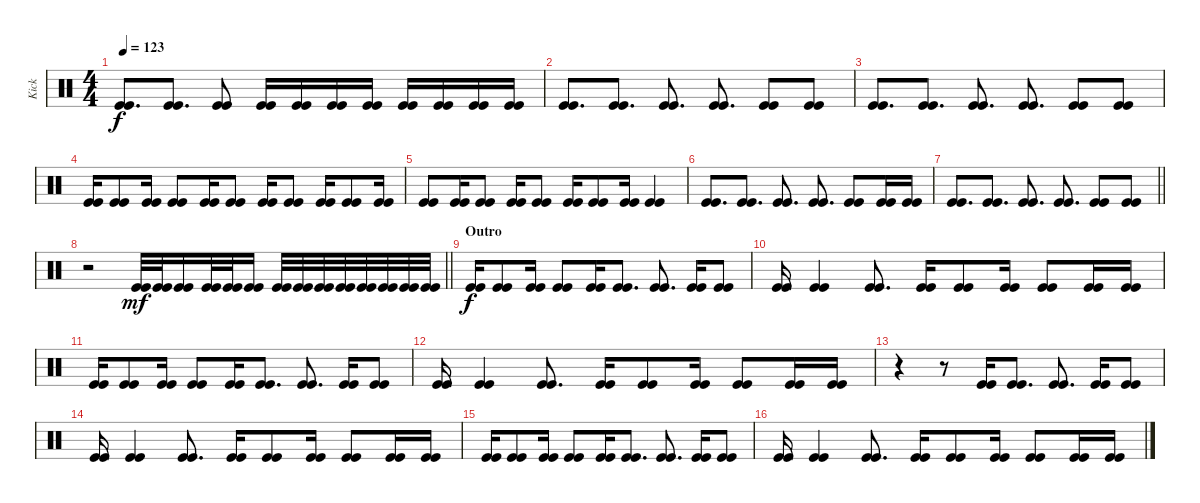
\track ("Kick" "Kick") {instrument percussion}
\staff {score}
\articulation defaults
\ts (4 4)
\tempo 123
\clef neutral
\ks c
("Kick (hit)" "Kick (hit)").8{d dy f} ("Kick (hit)" "Kick (hit)").8{d} ("Kick (hit)" "Kick (hit)").8 ("Kick (hit)" "Kick (hit)").16 ("Kick (hit)" "Kick (hit)").16 ("Kick (hit)" "Kick (hit)").16 ("Kick (hit)" "Kick (hit)").16 ("Kick (hit)" "Kick (hit)").16 ("Kick (hit)" "Kick (hit)").16 ("Kick (hit)" "Kick (hit)").16 ("Kick (hit)" "Kick (hit)").16 |
("Kick (hit)" "Kick (hit)").8{d} ("Kick (hit)" "Kick (hit)").8{d} ("Kick (hit)" "Kick (hit)").8{d} ("Kick (hit)" "Kick (hit)").8{d} ("Kick (hit)" "Kick (hit)").8 ("Kick (hit)" "Kick (hit)").8 |
("Kick (hit)" "Kick (hit)").8{d} ("Kick (hit)" "Kick (hit)").8{d} ("Kick (hit)" "Kick (hit)").8{d} ("Kick (hit)" "Kick (hit)").8{d} ("Kick (hit)" "Kick (hit)").8 ("Kick (hit)" "Kick (hit)").8 |
("Kick (hit)" "Kick (hit)").16 ("Kick (hit)" "Kick (hit)").8 ("Kick (hit)" "Kick (hit)").16 ("Kick (hit)" "Kick (hit)").8 ("Kick (hit)" "Kick (hit)").16 ("Kick (hit)" "Kick (hit)").8 ("Kick (hit)" "Kick (hit)").16 ("Kick (hit)" "Kick (hit)").8 ("Kick (hit)" "Kick (hit)").16 ("Kick (hit)" "Kick (hit)").8 ("Kick (hit)" "Kick (hit)").16 |
("Kick (hit)" "Kick (hit)").8 ("Kick (hit)" "Kick (hit)").16 ("Kick (hit)" "Kick (hit)").8 ("Kick (hit)" "Kick (hit)").16 ("Kick (hit)" "Kick (hit)").8 ("Kick (hit)" "Kick (hit)").16 ("Kick (hit)" "Kick (hit)").8 ("Kick (hit)" "Kick (hit)").16 ("Kick (hit)" "Kick (hit)").4 |
("Kick (hit)" "Kick (hit)").8{d} ("Kick (hit)" "Kick (hit)").8{d} ("Kick (hit)" "Kick (hit)").8{d} ("Kick (hit)" "Kick (hit)").8{d} ("Kick (hit)" "Kick (hit)").8 ("Kick (hit)" "Kick (hit)").16 ("Kick (hit)" "Kick (hit)").16 |
\barLineRight lightlight
("Kick (hit)" "Kick (hit)").8{d} ("Kick (hit)" "Kick (hit)").8{d} ("Kick (hit)" "Kick (hit)").8{d} ("Kick (hit)" "Kick (hit)").8{d} ("Kick (hit)" "Kick (hit)").8 ("Kick (hit)" "Kick (hit)").8 |
\barLineRight lightlight
r.2 ("Kick (hit)" "Kick (hit)").32{dy mf} ("Kick (hit)" "Kick (hit)").32 ("Kick (hit)" "Kick (hit)").16 ("Kick (hit)" "Kick (hit)").32 ("Kick (hit)" "Kick (hit)").32 ("Kick (hit)" "Kick (hit)").16 ("Kick (hit)" "Kick (hit)").32 ("Kick (hit)" "Kick (hit)").32 ("Kick (hit)" "Kick (hit)").32 ("Kick (hit)" "Kick (hit)").32 ("Kick (hit)" "Kick (hit)").32 ("Kick (hit)" "Kick (hit)").32 ("Kick (hit)" "Kick (hit)").32 ("Kick (hit)" "Kick (hit)").32 |
\section ("" "Outro")
("Kick (hit)" "Kick (hit)").16{dy f} ("Kick (hit)" "Kick (hit)").8 ("Kick (hit)" "Kick (hit)").16 ("Kick (hit)" "Kick (hit)").8 ("Kick (hit)" "Kick (hit)").16 ("Kick (hit)" "Kick (hit)").8{d} ("Kick (hit)" "Kick (hit)").8{d} ("Kick (hit)" "Kick (hit)").16 ("Kick (hit)" "Kick (hit)").8 |
("Kick (hit)" "Kick (hit)").16 ("Kick (hit)" "Kick (hit)").4 ("Kick (hit)" "Kick (hit)").8{d} ("Kick (hit)" "Kick (hit)").16 ("Kick (hit)" "Kick (hit)").8 ("Kick (hit)" "Kick (hit)").16 ("Kick (hit)" "Kick (hit)").8 ("Kick (hit)" "Kick (hit)").16 ("Kick (hit)" "Kick (hit)").16 |
("Kick (hit)" "Kick (hit)").16 ("Kick (hit)" "Kick (hit)").8 ("Kick (hit)" "Kick (hit)").16 ("Kick (hit)" "Kick (hit)").8 ("Kick (hit)" "Kick (hit)").16 ("Kick (hit)" "Kick (hit)").8{d} ("Kick (hit)" "Kick (hit)").8{d} ("Kick (hit)" "Kick (hit)").16 ("Kick (hit)" "Kick (hit)").8 |
("Kick (hit)" "Kick (hit)").16 ("Kick (hit)" "Kick (hit)").4 ("Kick (hit)" "Kick (hit)").8{d} ("Kick (hit)" "Kick (hit)").16 ("Kick (hit)" "Kick (hit)").8 ("Kick (hit)" "Kick (hit)").16 ("Kick (hit)" "Kick (hit)").8 ("Kick (hit)" "Kick (hit)").16 ("Kick (hit)" "Kick (hit)").16 |
r.4 r.8 ("Kick (hit)" "Kick (hit)").16 ("Kick (hit)" "Kick (hit)").8{d} ("Kick (hit)" "Kick (hit)").8{d} ("Kick (hit)" "Kick (hit)").16 ("Kick (hit)" "Kick (hit)").8 |
("Kick (hit)" "Kick (hit)").16 ("Kick (hit)" "Kick (hit)").4 ("Kick (hit)" "Kick (hit)").8{d} ("Kick (hit)" "Kick (hit)").16 ("Kick (hit)" "Kick (hit)").8 ("Kick (hit)" "Kick (hit)").16 ("Kick (hit)" "Kick (hit)").8 ("Kick (hit)" "Kick (hit)").16 ("Kick (hit)" "Kick (hit)").16 |
("Kick (hit)" "Kick (hit)").16 ("Kick (hit)" "Kick (hit)").8 ("Kick (hit)" "Kick (hit)").16 ("Kick (hit)" "Kick (hit)").8 ("Kick (hit)" "Kick (hit)").16 ("Kick (hit)" "Kick (hit)").8{d} ("Kick (hit)" "Kick (hit)").8{d} ("Kick (hit)" "Kick (hit)").16 ("Kick (hit)" "Kick (hit)").8 |
("Kick (hit)" "Kick (hit)").16 ("Kick (hit)" "Kick (hit)").4 ("Kick (hit)" "Kick (hit)").8{d} ("Kick (hit)" "Kick (hit)").16 ("Kick (hit)" "Kick (hit)").8 ("Kick (hit)" "Kick (hit)").16 ("Kick (hit)" "Kick (hit)").8 ("Kick (hit)" "Kick (hit)").16 ("Kick (hit)" "Kick (hit)").16
